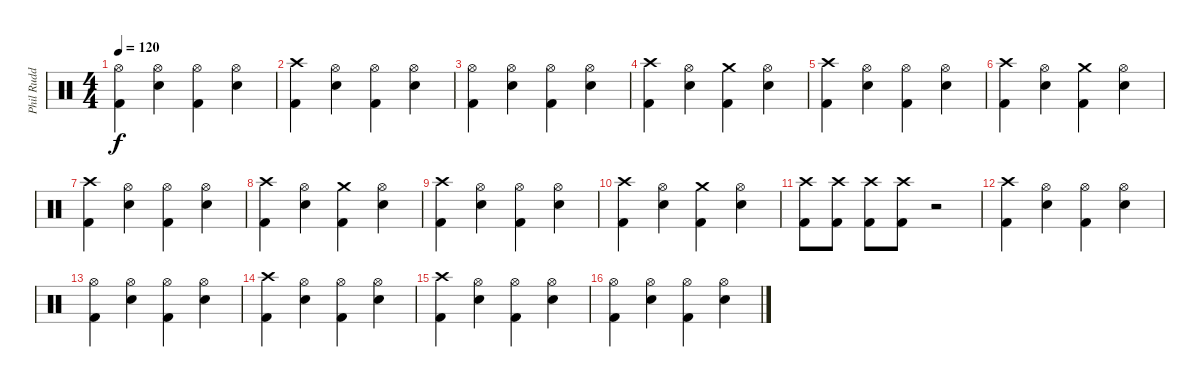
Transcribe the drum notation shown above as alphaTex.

\track ("Phil Rudd (Drum)" "Phil Rudd ") {instrument percussion}
\staff {score}
\articulation defaults
\ts (4 4)
\tempo 120
\clef neutral
\ks c
("Hi-Hat (open)" "Kick (hit) 2").4{dy f} ("Hi-Hat (open)" "Snare (hit) 2").4 ("Hi-Hat (open)" "Kick (hit) 2").4 ("Hi-Hat (open)" "Snare (hit) 2").4 |
("Crash high (hit)" "Kick (hit) 2").4 ("Hi-Hat (open)" "Snare (hit) 2").4 ("Hi-Hat (open)" "Kick (hit) 2").4 ("Hi-Hat (open)" "Snare (hit) 2").4 |
("Hi-Hat (open)" "Kick (hit) 2").4 ("Hi-Hat (open)" "Snare (hit) 2").4 ("Hi-Hat (open)" "Kick (hit) 2").4 ("Hi-Hat (open)" "Snare (hit) 2").4 |
("Crash high (hit)" "Kick (hit) 2").4 ("Hi-Hat (open)" "Snare (hit) 2").4 ("Crash medium (hit)" "Kick (hit) 2").4 ("Hi-Hat (open)" "Snare (hit) 2").4 |
("Crash high (hit)" "Kick (hit) 2").4 ("Hi-Hat (open)" "Snare (hit) 2").4 ("Hi-Hat (open)" "Kick (hit) 2").4 ("Hi-Hat (open)" "Snare (hit) 2").4 |
("Crash high (hit)" "Kick (hit) 2").4 ("Hi-Hat (open)" "Snare (hit) 2").4 ("Crash medium (hit)" "Kick (hit) 2").4 ("Hi-Hat (open)" "Snare (hit) 2").4 |
("Crash high (hit)" "Kick (hit) 2").4 ("Hi-Hat (open)" "Snare (hit) 2").4 ("Hi-Hat (open)" "Kick (hit) 2").4 ("Hi-Hat (open)" "Snare (hit) 2").4 |
("Crash high (hit)" "Kick (hit) 2").4 ("Hi-Hat (open)" "Snare (hit) 2").4 ("Crash medium (hit)" "Kick (hit) 2").4 ("Hi-Hat (open)" "Snare (hit) 2").4 |
("Crash high (hit)" "Kick (hit) 2").4 ("Hi-Hat (open)" "Snare (hit) 2").4 ("Hi-Hat (open)" "Kick (hit) 2").4 ("Hi-Hat (open)" "Snare (hit) 2").4 |
("Crash high (hit)" "Kick (hit) 2").4 ("Hi-Hat (open)" "Snare (hit) 2").4 ("Crash medium (hit)" "Kick (hit) 2").4 ("Hi-Hat (open)" "Snare (hit) 2").4 |
("Crash high (hit)" "Kick (hit) 2").8 ("Crash high (hit)" "Kick (hit) 2").8 ("Crash high (hit)" "Kick (hit) 2").8 ("Crash high (hit)" "Kick (hit) 2").8 r.2 |
("Crash high (hit)" "Kick (hit) 2").4 ("Hi-Hat (open)" "Snare (hit) 2").4 ("Hi-Hat (open)" "Kick (hit) 2").4 ("Hi-Hat (open)" "Snare (hit) 2").4 |
("Hi-Hat (open)" "Kick (hit) 2").4 ("Hi-Hat (open)" "Snare (hit) 2").4 ("Hi-Hat (open)" "Kick (hit) 2").4 ("Hi-Hat (open)" "Snare (hit) 2").4 |
("Crash high (hit)" "Kick (hit) 2").4 ("Hi-Hat (open)" "Snare (hit) 2").4 ("Hi-Hat (open)" "Kick (hit) 2").4 ("Hi-Hat (open)" "Snare (hit) 2").4 |
("Crash high (hit)" "Kick (hit) 2").4 ("Hi-Hat (open)" "Snare (hit) 2").4 ("Hi-Hat (open)" "Kick (hit) 2").4 ("Hi-Hat (open)" "Snare (hit) 2").4 |
("Hi-Hat (open)" "Kick (hit) 2").4 ("Hi-Hat (open)" "Snare (hit) 2").4 ("Hi-Hat (open)" "Kick (hit) 2").4 ("Hi-Hat (open)" "Snare (hit) 2").4
